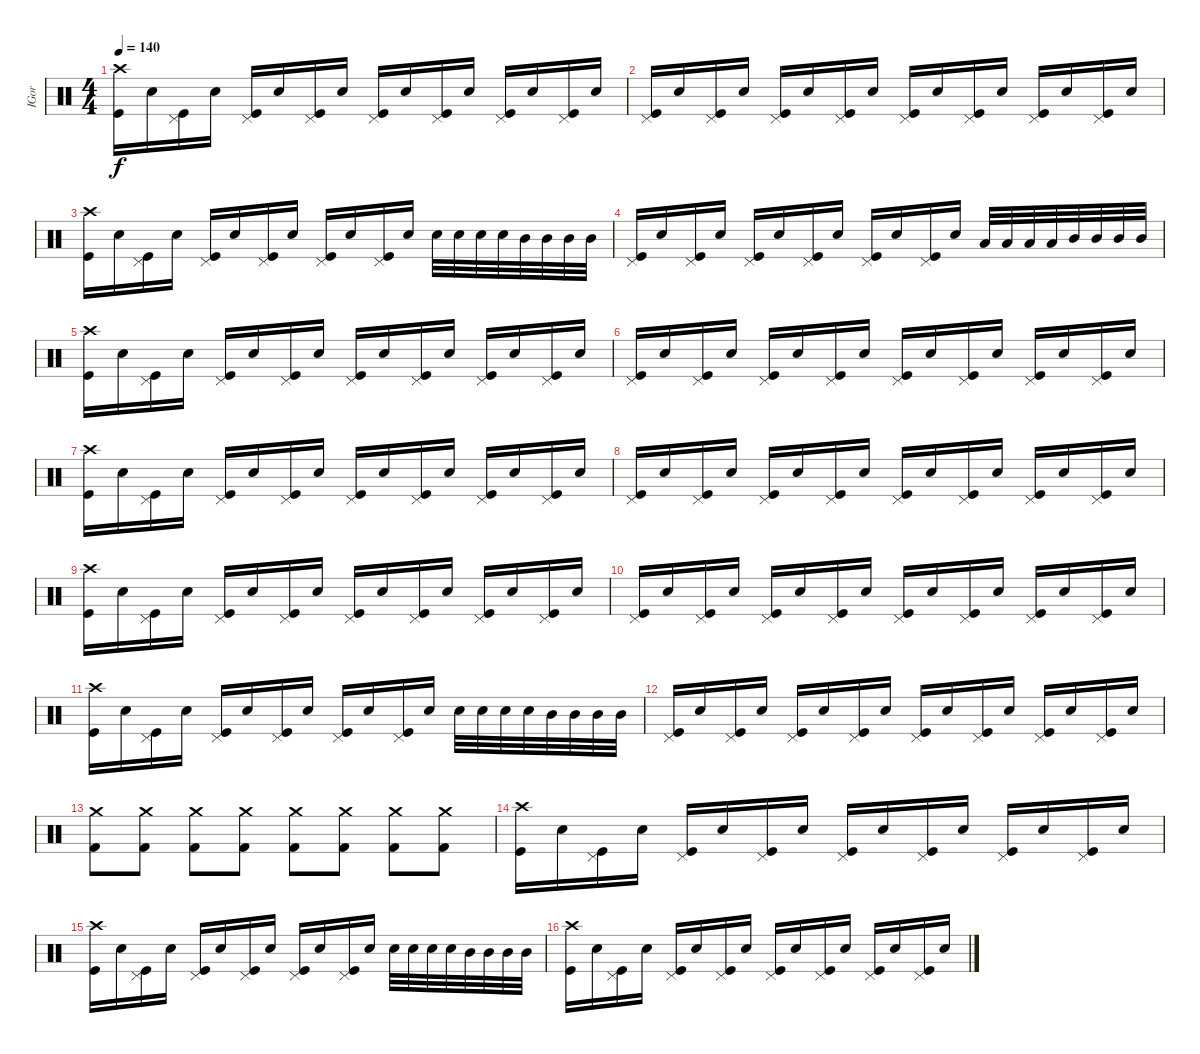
\track ("IGor" "IGor") {instrument percussion}
\staff {score}
\articulation defaults
\ts (4 4)
\tempo 140
\clef neutral
\ks c
("Kick (hit)" "Crash high (hit)").16{dy f} "Electric Snare (hit)".16 ("Pedal Hi-Hat (hit)" "Kick (hit)").16 "Electric Snare (hit)".16 ("Pedal Hi-Hat (hit)" "Kick (hit)").16 "Electric Snare (hit)".16 ("Pedal Hi-Hat (hit)" "Kick (hit)").16 "Electric Snare (hit)".16 ("Pedal Hi-Hat (hit)" "Kick (hit)").16 "Electric Snare (hit)".16 ("Pedal Hi-Hat (hit)" "Kick (hit)").16 "Electric Snare (hit)".16 ("Pedal Hi-Hat (hit)" "Kick (hit)").16 "Electric Snare (hit)".16 ("Pedal Hi-Hat (hit)" "Kick (hit)").16 "Electric Snare (hit)".16 |
("Kick (hit)" "Pedal Hi-Hat (hit)").16 "Electric Snare (hit)".16 ("Pedal Hi-Hat (hit)" "Kick (hit)").16 "Electric Snare (hit)".16 ("Pedal Hi-Hat (hit)" "Kick (hit)").16 "Electric Snare (hit)".16 ("Pedal Hi-Hat (hit)" "Kick (hit)").16 "Electric Snare (hit)".16 ("Pedal Hi-Hat (hit)" "Kick (hit)").16 "Electric Snare (hit)".16 ("Pedal Hi-Hat (hit)" "Kick (hit)").16 "Electric Snare (hit)".16 ("Pedal Hi-Hat (hit)" "Kick (hit)").16 "Electric Snare (hit)".16 ("Pedal Hi-Hat (hit)" "Kick (hit)").16 "Electric Snare (hit)".16 |
("Kick (hit)" "Crash high (hit)").16 "Electric Snare (hit)".16 ("Pedal Hi-Hat (hit)" "Kick (hit)").16 "Electric Snare (hit)".16 ("Pedal Hi-Hat (hit)" "Kick (hit)").16 "Electric Snare (hit)".16 ("Pedal Hi-Hat (hit)" "Kick (hit)").16 "Electric Snare (hit)".16 ("Pedal Hi-Hat (hit)" "Kick (hit)").16 "Electric Snare (hit)".16 ("Pedal Hi-Hat (hit)" "Kick (hit)").16 "Electric Snare (hit)".16 "Electric Snare (hit)".32 "Electric Snare (hit)".32 "Electric Snare (hit)".32 "Electric Snare (hit)".32 "Mid Tom (hit)".32 "Mid Tom (hit)".32 "Mid Tom (hit)".32 "Mid Tom (hit)".32 |
("Kick (hit)" "Pedal Hi-Hat (hit)").16 "Electric Snare (hit)".16 ("Pedal Hi-Hat (hit)" "Kick (hit)").16 "Electric Snare (hit)".16 ("Pedal Hi-Hat (hit)" "Kick (hit)").16 "Electric Snare (hit)".16 ("Pedal Hi-Hat (hit)" "Kick (hit)").16 "Electric Snare (hit)".16 ("Pedal Hi-Hat (hit)" "Kick (hit)").16 "Electric Snare (hit)".16 ("Pedal Hi-Hat (hit)" "Kick (hit)").16 "Electric Snare (hit)".16 "Low Tom (hit)".32 "Low Tom (hit)".32 "Low Tom (hit)".32 "Low Tom (hit)".32 "Mid Tom (hit)".32 "Mid Tom (hit)".32 "Mid Tom (hit)".32 "Mid Tom (hit)".32 |
("Kick (hit)" "Crash high (hit)").16 "Electric Snare (hit)".16 ("Pedal Hi-Hat (hit)" "Kick (hit)").16 "Electric Snare (hit)".16 ("Pedal Hi-Hat (hit)" "Kick (hit)").16 "Electric Snare (hit)".16 ("Pedal Hi-Hat (hit)" "Kick (hit)").16 "Electric Snare (hit)".16 ("Pedal Hi-Hat (hit)" "Kick (hit)").16 "Electric Snare (hit)".16 ("Pedal Hi-Hat (hit)" "Kick (hit)").16 "Electric Snare (hit)".16 ("Pedal Hi-Hat (hit)" "Kick (hit)").16 "Electric Snare (hit)".16 ("Pedal Hi-Hat (hit)" "Kick (hit)").16 "Electric Snare (hit)".16 |
("Kick (hit)" "Pedal Hi-Hat (hit)").16 "Electric Snare (hit)".16 ("Pedal Hi-Hat (hit)" "Kick (hit)").16 "Electric Snare (hit)".16 ("Pedal Hi-Hat (hit)" "Kick (hit)").16 "Electric Snare (hit)".16 ("Pedal Hi-Hat (hit)" "Kick (hit)").16 "Electric Snare (hit)".16 ("Pedal Hi-Hat (hit)" "Kick (hit)").16 "Electric Snare (hit)".16 ("Pedal Hi-Hat (hit)" "Kick (hit)").16 "Electric Snare (hit)".16 ("Pedal Hi-Hat (hit)" "Kick (hit)").16 "Electric Snare (hit)".16 ("Pedal Hi-Hat (hit)" "Kick (hit)").16 "Electric Snare (hit)".16 |
("Kick (hit)" "Crash high (hit)").16 "Electric Snare (hit)".16 ("Pedal Hi-Hat (hit)" "Kick (hit)").16 "Electric Snare (hit)".16 ("Pedal Hi-Hat (hit)" "Kick (hit)").16 "Electric Snare (hit)".16 ("Pedal Hi-Hat (hit)" "Kick (hit)").16 "Electric Snare (hit)".16 ("Pedal Hi-Hat (hit)" "Kick (hit)").16 "Electric Snare (hit)".16 ("Pedal Hi-Hat (hit)" "Kick (hit)").16 "Electric Snare (hit)".16 ("Pedal Hi-Hat (hit)" "Kick (hit)").16 "Electric Snare (hit)".16 ("Pedal Hi-Hat (hit)" "Kick (hit)").16 "Electric Snare (hit)".16 |
("Kick (hit)" "Pedal Hi-Hat (hit)").16 "Electric Snare (hit)".16 ("Pedal Hi-Hat (hit)" "Kick (hit)").16 "Electric Snare (hit)".16 ("Pedal Hi-Hat (hit)" "Kick (hit)").16 "Electric Snare (hit)".16 ("Pedal Hi-Hat (hit)" "Kick (hit)").16 "Electric Snare (hit)".16 ("Pedal Hi-Hat (hit)" "Kick (hit)").16 "Electric Snare (hit)".16 ("Pedal Hi-Hat (hit)" "Kick (hit)").16 "Electric Snare (hit)".16 ("Pedal Hi-Hat (hit)" "Kick (hit)").16 "Electric Snare (hit)".16 ("Pedal Hi-Hat (hit)" "Kick (hit)").16 "Electric Snare (hit)".16 |
("Kick (hit)" "Crash high (hit)").16 "Electric Snare (hit)".16 ("Pedal Hi-Hat (hit)" "Kick (hit)").16 "Electric Snare (hit)".16 ("Pedal Hi-Hat (hit)" "Kick (hit)").16 "Electric Snare (hit)".16 ("Pedal Hi-Hat (hit)" "Kick (hit)").16 "Electric Snare (hit)".16 ("Pedal Hi-Hat (hit)" "Kick (hit)").16 "Electric Snare (hit)".16 ("Pedal Hi-Hat (hit)" "Kick (hit)").16 "Electric Snare (hit)".16 ("Pedal Hi-Hat (hit)" "Kick (hit)").16 "Electric Snare (hit)".16 ("Pedal Hi-Hat (hit)" "Kick (hit)").16 "Electric Snare (hit)".16 |
("Kick (hit)" "Pedal Hi-Hat (hit)").16 "Electric Snare (hit)".16 ("Pedal Hi-Hat (hit)" "Kick (hit)").16 "Electric Snare (hit)".16 ("Pedal Hi-Hat (hit)" "Kick (hit)").16 "Electric Snare (hit)".16 ("Pedal Hi-Hat (hit)" "Kick (hit)").16 "Electric Snare (hit)".16 ("Pedal Hi-Hat (hit)" "Kick (hit)").16 "Electric Snare (hit)".16 ("Pedal Hi-Hat (hit)" "Kick (hit)").16 "Electric Snare (hit)".16 ("Pedal Hi-Hat (hit)" "Kick (hit)").16 "Electric Snare (hit)".16 ("Pedal Hi-Hat (hit)" "Kick (hit)").16 "Electric Snare (hit)".16 |
("Kick (hit)" "Crash high (hit)").16 "Electric Snare (hit)".16 ("Pedal Hi-Hat (hit)" "Kick (hit)").16 "Electric Snare (hit)".16 ("Pedal Hi-Hat (hit)" "Kick (hit)").16 "Electric Snare (hit)".16 ("Pedal Hi-Hat (hit)" "Kick (hit)").16 "Electric Snare (hit)".16 ("Pedal Hi-Hat (hit)" "Kick (hit)").16 "Electric Snare (hit)".16 ("Pedal Hi-Hat (hit)" "Kick (hit)").16 "Electric Snare (hit)".16 "Electric Snare (hit)".32 "Electric Snare (hit)".32 "Electric Snare (hit)".32 "Electric Snare (hit)".32 "Mid Tom (hit)".32 "Mid Tom (hit)".32 "Mid Tom (hit)".32 "Mid Tom (hit)".32 |
("Kick (hit)" "Pedal Hi-Hat (hit)").16 "Electric Snare (hit)".16 ("Pedal Hi-Hat (hit)" "Kick (hit)").16 "Electric Snare (hit)".16 ("Pedal Hi-Hat (hit)" "Kick (hit)").16 "Electric Snare (hit)".16 ("Pedal Hi-Hat (hit)" "Kick (hit)").16 "Electric Snare (hit)".16 ("Pedal Hi-Hat (hit)" "Kick (hit)").16 "Electric Snare (hit)".16 ("Pedal Hi-Hat (hit)" "Kick (hit)").16 "Electric Snare (hit)".16 ("Pedal Hi-Hat (hit)" "Kick (hit)").16 "Electric Snare (hit)".16 ("Pedal Hi-Hat (hit)" "Kick (hit)").16 "Electric Snare (hit)".16 |
("Kick (hit) 2" "Crash medium (hit)").8 ("Kick (hit) 2" "Crash medium (hit)").8 ("Kick (hit) 2" "Crash medium (hit)").8 ("Kick (hit) 2" "Crash medium (hit)").8 ("Kick (hit) 2" "Crash medium (hit)").8 ("Kick (hit) 2" "Crash medium (hit)").8 ("Kick (hit) 2" "Crash medium (hit)").8 ("Kick (hit) 2" "Crash medium (hit)").8 |
("Kick (hit)" "Crash high (hit)").16 "Electric Snare (hit)".16 ("Pedal Hi-Hat (hit)" "Kick (hit)").16 "Electric Snare (hit)".16 ("Pedal Hi-Hat (hit)" "Kick (hit)").16 "Electric Snare (hit)".16 ("Pedal Hi-Hat (hit)" "Kick (hit)").16 "Electric Snare (hit)".16 ("Pedal Hi-Hat (hit)" "Kick (hit)").16 "Electric Snare (hit)".16 ("Pedal Hi-Hat (hit)" "Kick (hit)").16 "Electric Snare (hit)".16 ("Pedal Hi-Hat (hit)" "Kick (hit)").16 "Electric Snare (hit)".16 ("Pedal Hi-Hat (hit)" "Kick (hit)").16 "Electric Snare (hit)".16 |
("Kick (hit)" "Crash high (hit)").16 "Electric Snare (hit)".16 ("Pedal Hi-Hat (hit)" "Kick (hit)").16 "Electric Snare (hit)".16 ("Pedal Hi-Hat (hit)" "Kick (hit)").16 "Electric Snare (hit)".16 ("Pedal Hi-Hat (hit)" "Kick (hit)").16 "Electric Snare (hit)".16 ("Pedal Hi-Hat (hit)" "Kick (hit)").16 "Electric Snare (hit)".16 ("Pedal Hi-Hat (hit)" "Kick (hit)").16 "Electric Snare (hit)".16 "Electric Snare (hit)".32 "Electric Snare (hit)".32 "Electric Snare (hit)".32 "Electric Snare (hit)".32 "Mid Tom (hit)".32 "Mid Tom (hit)".32 "Mid Tom (hit)".32 "Mid Tom (hit)".32 |
("Kick (hit)" "Crash high (hit)").16 "Electric Snare (hit)".16 ("Pedal Hi-Hat (hit)" "Kick (hit)").16 "Electric Snare (hit)".16 ("Pedal Hi-Hat (hit)" "Kick (hit)").16 "Electric Snare (hit)".16 ("Pedal Hi-Hat (hit)" "Kick (hit)").16 "Electric Snare (hit)".16 ("Pedal Hi-Hat (hit)" "Kick (hit)").16 "Electric Snare (hit)".16 ("Pedal Hi-Hat (hit)" "Kick (hit)").16 "Electric Snare (hit)".16 ("Pedal Hi-Hat (hit)" "Kick (hit)").16 "Electric Snare (hit)".16 ("Pedal Hi-Hat (hit)" "Kick (hit)").16 "Electric Snare (hit)".16
